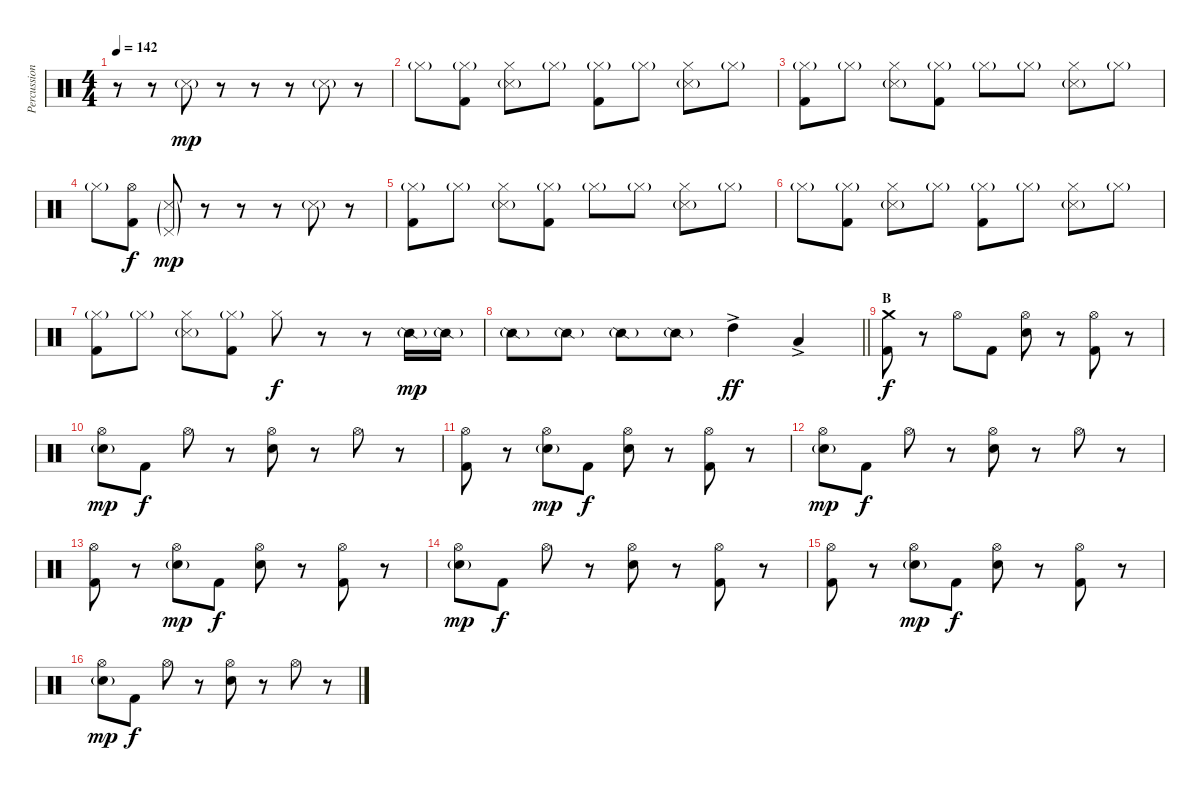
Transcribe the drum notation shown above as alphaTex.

\track ("Percussion" "Percussion") {instrument percussion}
\staff {score}
\articulation defaults
\ts (4 4)
\tempo 142
\clef neutral
\ks c
r.8{dy mp} r.8 "Snare (side stick) 3"{g}.8 r.8 r.8 r.8 "Snare (side stick) 3"{g}.8 r.8 |
"Hi-Hat (closed)"{g}.8 ("Hi-Hat (closed)"{g} "Kick (hit) 2").8 ("Hi-Hat (closed)" "Snare (side stick) 3"{g}).8 "Hi-Hat (closed)"{g}.8 ("Hi-Hat (closed)"{g} "Kick (hit) 2").8 "Hi-Hat (closed)"{g}.8 ("Hi-Hat (closed)" "Snare (side stick) 3"{g}).8 "Hi-Hat (closed)"{g}.8 |
("Hi-Hat (closed)"{g} "Kick (hit) 2").8 "Hi-Hat (closed)"{g}.8 ("Hi-Hat (closed)" "Snare (side stick) 3"{g}).8 ("Hi-Hat (closed)"{g} "Kick (hit) 2").8 "Hi-Hat (closed)"{g}.8 "Hi-Hat (closed)"{g}.8 ("Hi-Hat (closed)" "Snare (side stick) 3"{g}).8 "Hi-Hat (closed)"{g}.8 |
"Hi-Hat (closed)"{g}.8 ("Hi-Hat (open)" "Kick (hit) 2").8{dy f} ("Pedal Hi-Hat (hit)"{g} "Snare (side stick) 3"{g}).8{dy mp} r.8 r.8 r.8 "Snare (side stick) 3"{g}.8 r.8 |
("Hi-Hat (closed)"{g} "Kick (hit) 2").8 "Hi-Hat (closed)"{g}.8 ("Hi-Hat (closed)" "Snare (side stick) 3"{g}).8 ("Hi-Hat (closed)"{g} "Kick (hit) 2").8 "Hi-Hat (closed)"{g}.8 "Hi-Hat (closed)"{g}.8 ("Hi-Hat (closed)" "Snare (side stick) 3"{g}).8 "Hi-Hat (closed)"{g}.8 |
"Hi-Hat (closed)"{g}.8 ("Hi-Hat (closed)"{g} "Kick (hit) 2").8 ("Hi-Hat (closed)" "Snare (side stick) 3"{g}).8 "Hi-Hat (closed)"{g}.8 ("Hi-Hat (closed)"{g} "Kick (hit) 2").8 "Hi-Hat (closed)"{g}.8 ("Hi-Hat (closed)" "Snare (side stick) 3"{g}).8 "Hi-Hat (closed)"{g}.8 |
("Hi-Hat (closed)"{g} "Kick (hit) 2").8 "Hi-Hat (closed)"{g}.8 ("Hi-Hat (closed)" "Snare (side stick) 3"{g}).8 ("Hi-Hat (closed)"{g} "Kick (hit) 2").8 "Hi-Hat (closed)".8{dy f} r.8 r.8 "Snare (side stick) 2"{g}.16{dy mp} "Snare (side stick) 2"{g}.16 |
\barLineRight lightlight "Snare (side stick) 2"{g}.8 "Snare (side stick) 2"{g}.8 "Snare (side stick) 2"{g}.8 "Snare (side stick) 2"{g}.8 "High Tom (hit)"{ac}.4{dy ff} "Low Tom (hit)"{ac}.4
|
\section ("" "B")
("Crash medium (hit)" "Kick (hit) 2").8{dy f} r.8 "Hi-Hat (open)".8 "Kick (hit) 2".8 ("Hi-Hat (open)" "Electric Snare (hit)").8 r.8 ("Hi-Hat (open)" "Kick (hit) 2").8 r.8 |
("Hi-Hat (open)" "Electric Snare (hit)"{g}).8{dy mp} "Kick (hit) 2".8{dy f} "Hi-Hat (open)".8 r.8 ("Hi-Hat (open)" "Electric Snare (hit)").8 r.8 "Hi-Hat (open)".8 r.8 |
("Hi-Hat (open)" "Kick (hit) 2").8 r.8 ("Hi-Hat (open)" "Electric Snare (hit)"{g}).8{dy mp} "Kick (hit) 2".8{dy f} ("Hi-Hat (open)" "Electric Snare (hit)").8 r.8 ("Hi-Hat (open)" "Kick (hit) 2").8 r.8 |
("Hi-Hat (open)" "Electric Snare (hit)"{g}).8{dy mp} "Kick (hit) 2".8{dy f} "Hi-Hat (open)".8 r.8 ("Hi-Hat (open)" "Electric Snare (hit)").8 r.8 "Hi-Hat (open)".8 r.8 |
("Hi-Hat (open)" "Kick (hit) 2").8 r.8 ("Hi-Hat (open)" "Electric Snare (hit)"{g}).8{dy mp} "Kick (hit) 2".8{dy f} ("Hi-Hat (open)" "Electric Snare (hit)").8 r.8 ("Hi-Hat (open)" "Kick (hit) 2").8 r.8 |
("Hi-Hat (open)" "Electric Snare (hit)"{g}).8{dy mp} "Kick (hit) 2".8{dy f} "Hi-Hat (open)".8 r.8 ("Hi-Hat (open)" "Electric Snare (hit)").8 r.8 ("Hi-Hat (open)" "Kick (hit) 2").8 r.8 |
("Hi-Hat (open)" "Kick (hit) 2").8 r.8 ("Hi-Hat (open)" "Electric Snare (hit)"{g}).8{dy mp} "Kick (hit) 2".8{dy f} ("Hi-Hat (open)" "Electric Snare (hit)").8 r.8 ("Hi-Hat (open)" "Kick (hit) 2").8 r.8 |
("Hi-Hat (open)" "Electric Snare (hit)"{g}).8{dy mp} "Kick (hit) 2".8{dy f} "Hi-Hat (open)".8 r.8 ("Hi-Hat (open)" "Electric Snare (hit)").8 r.8 "Hi-Hat (open)".8 r.8
